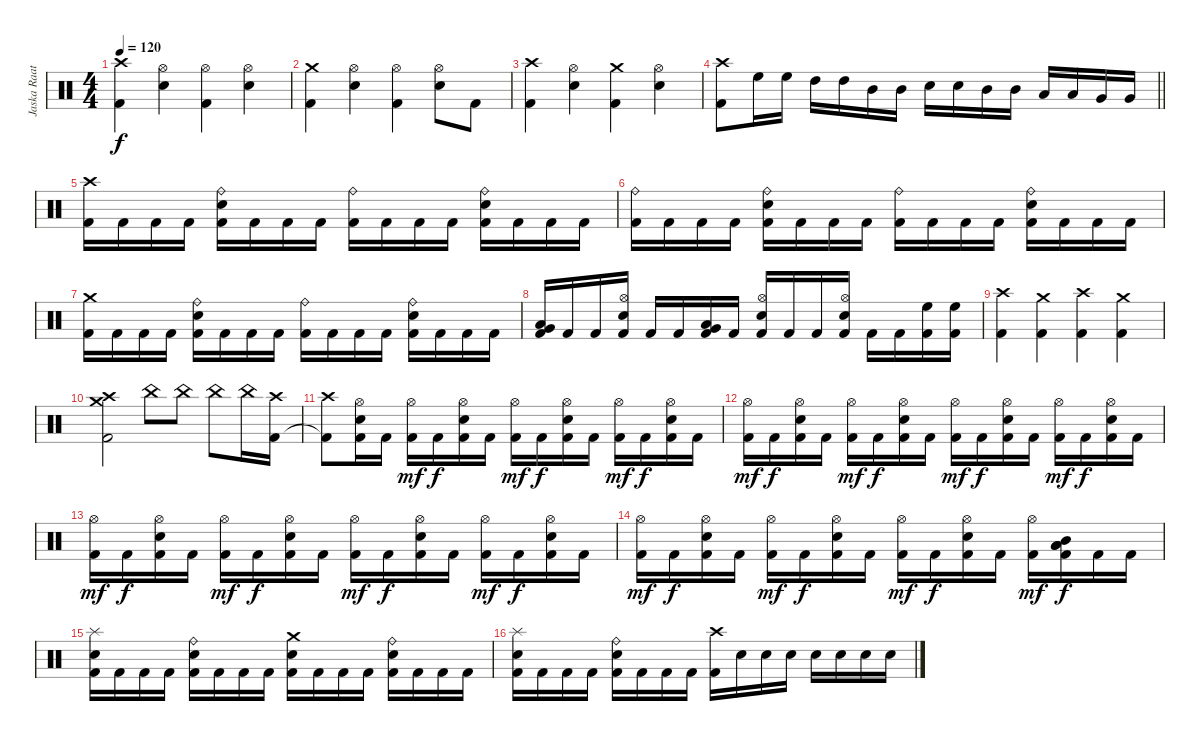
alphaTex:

\track ("Jaska Raatikainen" "Jaska Raat") {instrument percussion}
\staff {score}
\articulation defaults
\ts (4 4)
\tempo 120
\clef neutral
\ks c
("Crash high (hit)" "Kick (hit) 2").4{dy f} ("Hi-Hat (open)" "Electric Snare (hit)").4 ("Hi-Hat (open)" "Kick (hit) 2").4 ("Hi-Hat (open)" "Electric Snare (hit)").4 |
("Crash medium (hit)" "Kick (hit) 2").4 ("Hi-Hat (open)" "Electric Snare (hit)").4 ("Hi-Hat (open)" "Kick (hit) 2").4 ("Hi-Hat (open)" "Electric Snare (hit)").8 "Kick (hit) 2".8 |
("Crash high (hit)" "Kick (hit) 2").4 ("Hi-Hat (open)" "Electric Snare (hit)").4 ("Crash medium (hit)" "Kick (hit) 2").4 ("Hi-Hat (open)" "Electric Snare (hit)").4 |
\barLineRight lightlight
("Crash high (hit)" "Kick (hit) 2").8 "High Floor Tom (hit)".16 "High Floor Tom (hit)".16 "High Tom (hit)".16 "High Tom (hit)".16 "Mid Tom (hit)".16 "Mid Tom (hit)".16 "Electric Snare (hit)".16 "Electric Snare (hit)".16 "Mid Tom (hit)".16 "Mid Tom (hit)".16 "Low Tom (hit)".16 "Low Tom (hit)".16 "Very Low Tom (hit)".16 "Very Low Tom (hit)".16 |
("Crash high (hit)" "Kick (hit) 2").16 "Kick (hit) 2".16 "Kick (hit) 2".16 "Kick (hit) 2".16 ("Ride (bell)" "Electric Snare (hit)" "Kick (hit) 2").16 "Kick (hit) 2".16 "Kick (hit) 2".16 "Kick (hit) 2".16 ("Ride (bell)" "Kick (hit) 2").16 "Kick (hit) 2".16 "Kick (hit) 2".16 "Kick (hit) 2".16 ("Ride (bell)" "Electric Snare (hit)" "Kick (hit) 2").16 "Kick (hit) 2".16 "Kick (hit) 2".16 "Kick (hit) 2".16 |
("Ride (bell)" "Kick (hit) 2").16 "Kick (hit) 2".16 "Kick (hit) 2".16 "Kick (hit) 2".16 ("Ride (bell)" "Electric Snare (hit)" "Kick (hit) 2").16 "Kick (hit) 2".16 "Kick (hit) 2".16 "Kick (hit) 2".16 ("Ride (bell)" "Kick (hit) 2").16 "Kick (hit) 2".16 "Kick (hit) 2".16 "Kick (hit) 2".16 ("Ride (bell)" "Electric Snare (hit)" "Kick (hit) 2").16 "Kick (hit) 2".16 "Kick (hit) 2".16 "Kick (hit) 2".16 |
("Crash medium (hit)" "Kick (hit) 2").16 "Kick (hit) 2".16 "Kick (hit) 2".16 "Kick (hit) 2".16 ("Ride (bell)" "Electric Snare (hit)" "Kick (hit) 2").16 "Kick (hit) 2".16 "Kick (hit) 2".16 "Kick (hit) 2".16 ("Ride (bell)" "Kick (hit) 2").16 "Kick (hit) 2".16 "Kick (hit) 2".16 "Kick (hit) 2".16 ("Ride (bell)" "Electric Snare (hit)" "Kick (hit) 2").16 "Kick (hit) 2".16 "Kick (hit) 2".16 "Kick (hit) 2".16 |
("Very Low Tom (hit)" "Low Floor Tom (hit)" "Kick (hit) 2").16 "Kick (hit) 2".16 "Kick (hit) 2".16 ("Hi-Hat (open)" "Electric Snare (hit)" "Kick (hit) 2").16 "Kick (hit) 2".16 "Kick (hit) 2".16 ("Low Tom (hit)" "Very Low Tom (hit)" "Kick (hit) 2").16 "Kick (hit) 2".16 ("Hi-Hat (open)" "Electric Snare (hit)" "Kick (hit) 2").16 "Kick (hit) 2".16 "Kick (hit) 2".16 ("Hi-Hat (open)" "Electric Snare (hit)" "Kick (hit) 2").16 "Kick (hit) 2".16 "Kick (hit) 2".16 ("High Floor Tom (hit)" "Kick (hit) 2").16 ("High Floor Tom (hit)" "Kick (hit) 2").16 |
("Crash high (hit)" "Kick (hit) 2").4 ("Crash medium (hit)" "Kick (hit) 2").4 ("Crash high (hit)" "Kick (hit) 2").4 ("Crash medium (hit)" "Kick (hit) 2").4 |
("Crash high (hit)" "Crash medium (hit)" "Kick (hit) 2").2 "China (hit)".8 "China (hit)".8 "China (hit)".8 "China (hit)".16 ("Crash high (hit)" "Kick (hit) 2").16 |
("Crash high (hit)" "Kick (hit) 2"{t}).8 ("Hi-Hat (open)" "Electric Snare (hit)" "Kick (hit) 2").16 "Kick (hit) 2".16 ("Hi-Hat (open)" "Kick (hit) 2").16{dy mf} "Kick (hit) 2".16{dy f} ("Hi-Hat (open)" "Electric Snare (hit)" "Kick (hit) 2").16 "Kick (hit) 2".16 ("Hi-Hat (open)" "Kick (hit) 2").16{dy mf} "Kick (hit) 2".16{dy f} ("Hi-Hat (open)" "Electric Snare (hit)" "Kick (hit) 2").16 "Kick (hit) 2".16 ("Hi-Hat (open)" "Kick (hit) 2").16{dy mf} "Kick (hit) 2".16{dy f} ("Hi-Hat (open)" "Electric Snare (hit)" "Kick (hit) 2").16 "Kick (hit) 2".16 |
("Hi-Hat (open)" "Kick (hit) 2").16{dy mf} "Kick (hit) 2".16{dy f} ("Hi-Hat (open)" "Electric Snare (hit)" "Kick (hit) 2").16 "Kick (hit) 2".16 ("Hi-Hat (open)" "Kick (hit) 2").16{dy mf} "Kick (hit) 2".16{dy f} ("Hi-Hat (open)" "Electric Snare (hit)" "Kick (hit) 2").16 "Kick (hit) 2".16 ("Hi-Hat (open)" "Kick (hit) 2").16{dy mf} "Kick (hit) 2".16{dy f} ("Hi-Hat (open)" "Electric Snare (hit)" "Kick (hit) 2").16 "Kick (hit) 2".16 ("Hi-Hat (open)" "Kick (hit) 2").16{dy mf} "Kick (hit) 2".16{dy f} ("Hi-Hat (open)" "Electric Snare (hit)" "Kick (hit) 2").16 "Kick (hit) 2".16 |
("Hi-Hat (open)" "Kick (hit) 2").16{dy mf} "Kick (hit) 2".16{dy f} ("Hi-Hat (open)" "Electric Snare (hit)" "Kick (hit) 2").16 "Kick (hit) 2".16 ("Hi-Hat (open)" "Kick (hit) 2").16{dy mf} "Kick (hit) 2".16{dy f} ("Hi-Hat (open)" "Electric Snare (hit)" "Kick (hit) 2").16 "Kick (hit) 2".16 ("Hi-Hat (open)" "Kick (hit) 2").16{dy mf} "Kick (hit) 2".16{dy f} ("Hi-Hat (open)" "Electric Snare (hit)" "Kick (hit) 2").16 "Kick (hit) 2".16 ("Hi-Hat (open)" "Kick (hit) 2").16{dy mf} "Kick (hit) 2".16{dy f} ("Hi-Hat (open)" "Electric Snare (hit)" "Kick (hit) 2").16 "Kick (hit) 2".16 |
("Hi-Hat (open)" "Kick (hit) 2").16{dy mf} "Kick (hit) 2".16{dy f} ("Hi-Hat (open)" "Electric Snare (hit)" "Kick (hit) 2").16 "Kick (hit) 2".16 ("Hi-Hat (open)" "Kick (hit) 2").16{dy mf} "Kick (hit) 2".16{dy f} ("Hi-Hat (open)" "Electric Snare (hit)" "Kick (hit) 2").16 "Kick (hit) 2".16 ("Hi-Hat (open)" "Kick (hit) 2").16{dy mf} "Kick (hit) 2".16{dy f} ("Hi-Hat (open)" "Electric Snare (hit)" "Kick (hit) 2").16 "Kick (hit) 2".16 ("Hi-Hat (open)" "Kick (hit) 2").16{dy mf} ("Mid Tom (hit)" "Low Tom (hit)" "Low Floor Tom (hit)" "Kick (hit) 2").16{dy f} "Kick (hit) 2".16 "Kick (hit) 2".16 |
("Splash (hit)" "Electric Snare (hit)" "Kick (hit) 2").16 "Kick (hit) 2".16 "Kick (hit) 2".16 "Kick (hit) 2".16 ("Ride (bell)" "Electric Snare (hit)" "Kick (hit) 2").16 "Kick (hit) 2".16 "Kick (hit) 2".16 "Kick (hit) 2".16 ("Crash medium (hit)" "Electric Snare (hit)" "Kick (hit) 2").16 "Kick (hit) 2".16 "Kick (hit) 2".16 "Kick (hit) 2".16 ("Ride (bell)" "Electric Snare (hit)" "Kick (hit) 2").16 "Kick (hit) 2".16 "Kick (hit) 2".16 "Kick (hit) 2".16 |
("Splash (hit)" "Electric Snare (hit)" "Kick (hit) 2").16 "Kick (hit) 2".16 "Kick (hit) 2".16 "Kick (hit) 2".16 ("Ride (bell)" "Electric Snare (hit)" "Kick (hit) 2").16 "Kick (hit) 2".16 "Kick (hit) 2".16 "Kick (hit) 2".16 ("Crash high (hit)" "Kick (hit) 2").16 "Electric Snare (hit)".16 "Electric Snare (hit)".16 "Electric Snare (hit)".16 "Electric Snare (hit)".16 "Electric Snare (hit)".16 "Electric Snare (hit)".16 "Electric Snare (hit)".16
